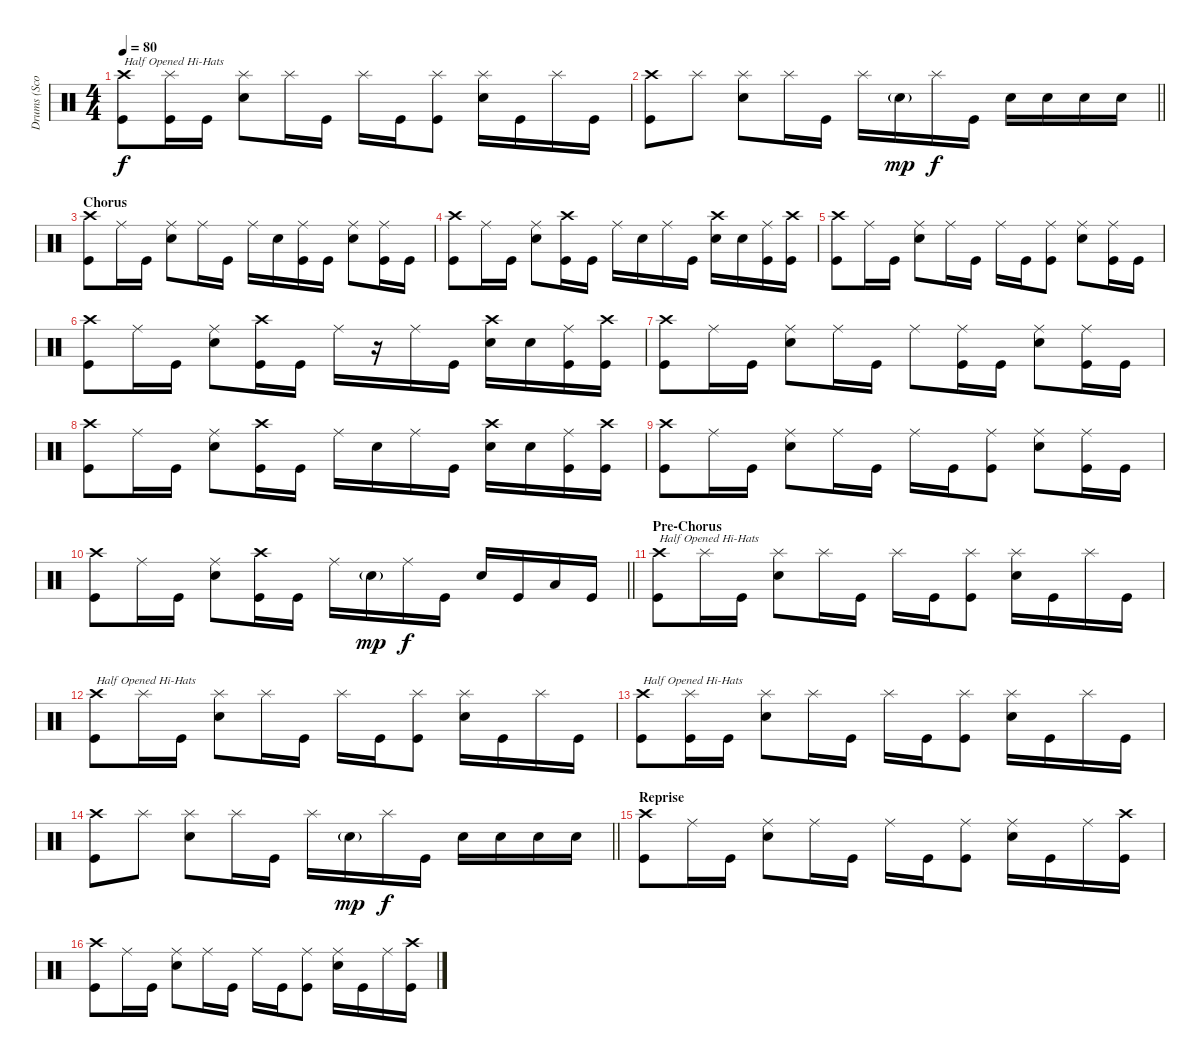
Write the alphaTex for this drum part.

\track ("Drums (Scott Phillips)" "Drums (Sco") {instrument percussion}
\staff {score}
\articulation defaults
\ts (4 4)
\tempo 80
\clef neutral
\ks c
("Crash high (hit)" "Kick (hit)").8{txt "Half Opened Hi-Hats" dy f} ("Splash (hit)" "Kick (hit)").16 "Kick (hit)".16 ("Splash (hit)" "Snare (hit) 2").8 "Splash (hit)".16 "Kick (hit)".16 "Splash (hit)".16 "Kick (hit)".16 ("Splash (hit)" "Kick (hit)").8 ("Splash (hit)" "Snare (hit) 2").16 "Kick (hit)".16 "Splash (hit)".16 "Kick (hit)".16 |
\barLineRight lightlight
("Crash high (hit)" "Kick (hit)").8 "Splash (hit)".8 ("Splash (hit)" "Snare (hit) 2").8 "Splash (hit)".16 "Kick (hit)".16 "Splash (hit)".16 "Snare (hit) 2"{g}.16{dy mp} "Splash (hit)".16{dy f} "Kick (hit)".16 "Snare (hit) 2".16 "Snare (hit) 2".16 "Snare (hit) 2".16 "Snare (hit) 2".16 |
\section ("" "Chorus")
("Crash high (hit)" "Kick (hit)").8 "Ride (middle)".16 "Kick (hit)".16 ("Ride (middle)" "Snare (hit) 2").8 "Ride (middle)".16 "Kick (hit)".16 "Ride (middle)".16 "Snare (hit) 2".16 ("Ride (middle)" "Kick (hit)").16 "Kick (hit)".16 ("Ride (middle)" "Snare (hit) 2").8 ("Ride (middle)" "Kick (hit)").16 "Kick (hit)".16 |
("Crash high (hit)" "Kick (hit)").8 "Ride (middle)".16 "Kick (hit)".16 ("Ride (middle)" "Snare (hit) 2").8 ("Crash high (hit)" "Kick (hit)").16 "Kick (hit)".16 "Ride (middle)".16 "Snare (hit) 2".16 "Ride (middle)".16 "Kick (hit)".16 ("Crash high (hit)" "Snare (hit) 2").16 "Snare (hit) 2".16 ("Ride (middle)" "Kick (hit)").16 ("Crash high (hit)" "Kick (hit)").16 |
("Crash high (hit)" "Kick (hit)").8 "Ride (middle)".16 "Kick (hit)".16 ("Ride (middle)" "Snare (hit) 2").8 "Ride (middle)".16 "Kick (hit)".16 "Ride (middle)".16 "Kick (hit)".16 ("Ride (middle)" "Kick (hit)").8 ("Ride (middle)" "Snare (hit) 2").8 ("Ride (middle)" "Kick (hit)").16 "Kick (hit)".16 |
("Crash high (hit)" "Kick (hit)").8 "Ride (middle)".16 "Kick (hit)".16 ("Ride (middle)" "Snare (hit) 2").8 ("Crash high (hit)" "Kick (hit)").16 "Kick (hit)".16 "Ride (middle)".16 r.16 "Ride (middle)".16 "Kick (hit)".16 ("Crash high (hit)" "Snare (hit) 2").16 "Snare (hit) 2".16 ("Ride (middle)" "Kick (hit)").16 ("Crash high (hit)" "Kick (hit)").16 |
("Crash high (hit)" "Kick (hit)").8 "Ride (middle)".16 "Kick (hit)".16 ("Ride (middle)" "Snare (hit) 2").8 "Ride (middle)".16 "Kick (hit)".16 "Ride (middle)".8 ("Ride (middle)" "Kick (hit)").16 "Kick (hit)".16 ("Ride (middle)" "Snare (hit) 2").8 ("Ride (middle)" "Kick (hit)").16 "Kick (hit)".16 |
("Crash high (hit)" "Kick (hit)").8 "Ride (middle)".16 "Kick (hit)".16 ("Ride (middle)" "Snare (hit) 2").8 ("Crash high (hit)" "Kick (hit)").16 "Kick (hit)".16 "Ride (middle)".16 "Snare (hit) 2".16 "Ride (middle)".16 "Kick (hit)".16 ("Crash high (hit)" "Snare (hit) 2").16 "Snare (hit) 2".16 ("Ride (middle)" "Kick (hit)").16 ("Crash high (hit)" "Kick (hit)").16 |
("Crash high (hit)" "Kick (hit)").8 "Ride (middle)".16 "Kick (hit)".16 ("Ride (middle)" "Snare (hit) 2").8 "Ride (middle)".16 "Kick (hit)".16 "Ride (middle)".16 "Kick (hit)".16 ("Ride (middle)" "Kick (hit)").8 ("Ride (middle)" "Snare (hit) 2").8 ("Ride (middle)" "Kick (hit)").16 "Kick (hit)".16 |
\barLineRight lightlight
("Crash high (hit)" "Kick (hit)").8 "Ride (middle)".16 "Kick (hit)".16 ("Ride (middle)" "Snare (hit) 2").8 ("Crash high (hit)" "Kick (hit)").16 "Kick (hit)".16 "Ride (middle)".16 "Snare (hit) 2"{g}.16{dy mp} "Ride (middle)".16{dy f} "Kick (hit)".16 "Snare (hit) 2".16 "Kick (hit)".16 "Low Tom (hit)".16 "Kick (hit)".16 |
\section ("" "Pre-Chorus")
("Crash high (hit)" "Kick (hit)").8{txt "Half Opened Hi-Hats"} "Splash (hit)".16 "Kick (hit)".16 ("Splash (hit)" "Snare (hit) 2").8 "Splash (hit)".16 "Kick (hit)".16 "Splash (hit)".16 "Kick (hit)".16 ("Splash (hit)" "Kick (hit)").8 ("Splash (hit)" "Snare (hit) 2").16 "Kick (hit)".16 "Splash (hit)".16 "Kick (hit)".16 |
("Crash high (hit)" "Kick (hit)").8{txt "Half Opened Hi-Hats"} "Splash (hit)".16 "Kick (hit)".16 ("Splash (hit)" "Snare (hit) 2").8 "Splash (hit)".16 "Kick (hit)".16 "Splash (hit)".16 "Kick (hit)".16 ("Splash (hit)" "Kick (hit)").8 ("Splash (hit)" "Snare (hit) 2").16 "Kick (hit)".16 "Splash (hit)".16 "Kick (hit)".16 |
("Crash high (hit)" "Kick (hit)").8{txt "Half Opened Hi-Hats"} ("Splash (hit)" "Kick (hit)").16 "Kick (hit)".16 ("Splash (hit)" "Snare (hit) 2").8 "Splash (hit)".16 "Kick (hit)".16 "Splash (hit)".16 "Kick (hit)".16 ("Splash (hit)" "Kick (hit)").8 ("Splash (hit)" "Snare (hit) 2").16 "Kick (hit)".16 "Splash (hit)".16 "Kick (hit)".16 |
\barLineRight lightlight
("Crash high (hit)" "Kick (hit)").8 "Splash (hit)".8 ("Splash (hit)" "Snare (hit) 2").8 "Splash (hit)".16 "Kick (hit)".16 "Splash (hit)".16 "Snare (hit) 2"{g}.16{dy mp} "Splash (hit)".16{dy f} "Kick (hit)".16 "Snare (hit) 2".16 "Snare (hit) 2".16 "Snare (hit) 2".16 "Snare (hit) 2".16 |
\section ("" "Reprise")
("Crash high (hit)" "Kick (hit)").8 "Ride (middle)".16 "Kick (hit)".16 ("Ride (middle)" "Snare (hit) 2").8 "Ride (middle)".16 "Kick (hit)".16 "Ride (middle)".16 "Kick (hit)".16 ("Ride (middle)" "Kick (hit)").8 ("Ride (middle)" "Snare (hit) 2").16 "Kick (hit)".16 "Ride (middle)".16 ("Crash high (hit)" "Kick (hit)").16 |
("Crash high (hit)" "Kick (hit)").8 "Ride (middle)".16 "Kick (hit)".16 ("Ride (middle)" "Snare (hit) 2").8 "Ride (middle)".16 "Kick (hit)".16 "Ride (middle)".16 "Kick (hit)".16 ("Ride (middle)" "Kick (hit)").8 ("Ride (middle)" "Snare (hit) 2").16 "Kick (hit)".16 "Ride (middle)".16 ("Crash high (hit)" "Kick (hit)").16
